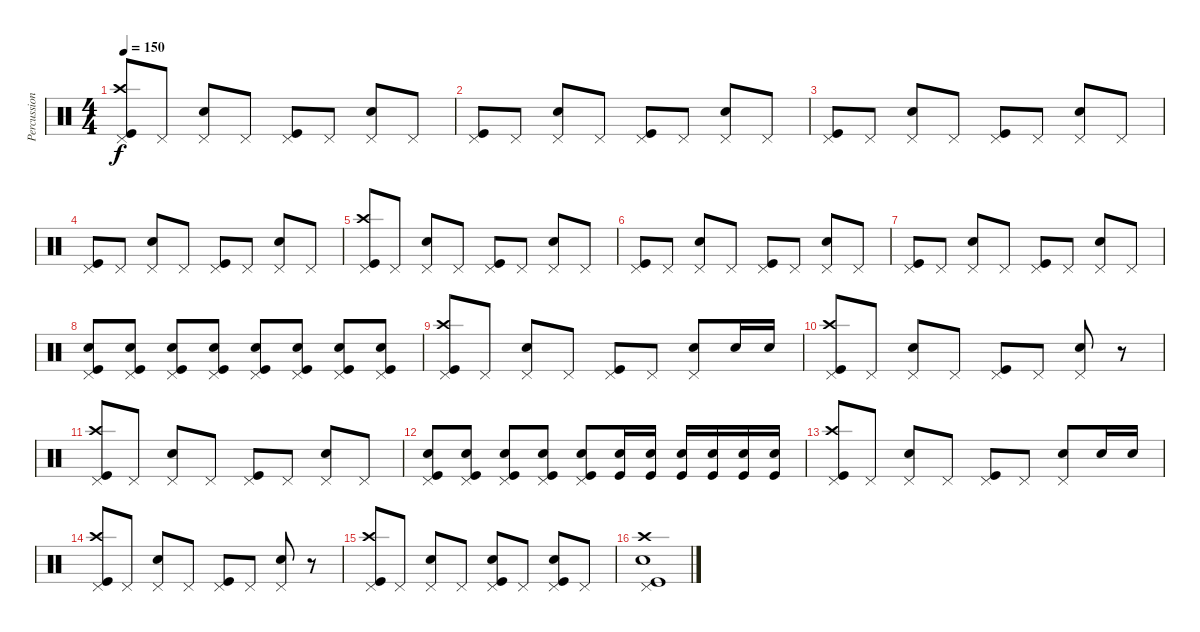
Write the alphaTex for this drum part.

\track ("Percussion" "Percussion") {instrument percussion}
\staff {score}
\articulation defaults
\ts (4 4)
\tempo 150
\clef neutral
\ks c
("Pedal Hi-Hat (hit)" "Crash high (hit)" "Kick (hit)").8{dy f} "Pedal Hi-Hat (hit)".8 ("Pedal Hi-Hat (hit)" "Snare (hit) 2").8 "Pedal Hi-Hat (hit)".8 ("Pedal Hi-Hat (hit)" "Kick (hit)").8 "Pedal Hi-Hat (hit)".8 ("Pedal Hi-Hat (hit)" "Snare (hit) 2").8 "Pedal Hi-Hat (hit)".8 |
("Pedal Hi-Hat (hit)" "Kick (hit)").8 "Pedal Hi-Hat (hit)".8 ("Pedal Hi-Hat (hit)" "Snare (hit) 2").8 "Pedal Hi-Hat (hit)".8 ("Pedal Hi-Hat (hit)" "Kick (hit)").8 "Pedal Hi-Hat (hit)".8 ("Pedal Hi-Hat (hit)" "Snare (hit) 2").8 "Pedal Hi-Hat (hit)".8 |
("Pedal Hi-Hat (hit)" "Kick (hit)").8 "Pedal Hi-Hat (hit)".8 ("Pedal Hi-Hat (hit)" "Snare (hit) 2").8 "Pedal Hi-Hat (hit)".8 ("Pedal Hi-Hat (hit)" "Kick (hit)").8 "Pedal Hi-Hat (hit)".8 ("Pedal Hi-Hat (hit)" "Snare (hit) 2").8 "Pedal Hi-Hat (hit)".8 |
("Pedal Hi-Hat (hit)" "Kick (hit)").8 "Pedal Hi-Hat (hit)".8 ("Pedal Hi-Hat (hit)" "Snare (hit) 2").8 "Pedal Hi-Hat (hit)".8 ("Pedal Hi-Hat (hit)" "Kick (hit)").8 "Pedal Hi-Hat (hit)".8 ("Pedal Hi-Hat (hit)" "Snare (hit) 2").8 "Pedal Hi-Hat (hit)".8 |
("Pedal Hi-Hat (hit)" "Crash high (hit)" "Kick (hit)").8 "Pedal Hi-Hat (hit)".8 ("Pedal Hi-Hat (hit)" "Snare (hit) 2").8 "Pedal Hi-Hat (hit)".8 ("Pedal Hi-Hat (hit)" "Kick (hit)").8 "Pedal Hi-Hat (hit)".8 ("Pedal Hi-Hat (hit)" "Snare (hit) 2").8 "Pedal Hi-Hat (hit)".8 |
("Pedal Hi-Hat (hit)" "Kick (hit)").8 "Pedal Hi-Hat (hit)".8 ("Pedal Hi-Hat (hit)" "Snare (hit) 2").8 "Pedal Hi-Hat (hit)".8 ("Pedal Hi-Hat (hit)" "Kick (hit)").8 "Pedal Hi-Hat (hit)".8 ("Pedal Hi-Hat (hit)" "Snare (hit) 2").8 "Pedal Hi-Hat (hit)".8 |
("Pedal Hi-Hat (hit)" "Kick (hit)").8 "Pedal Hi-Hat (hit)".8 ("Pedal Hi-Hat (hit)" "Snare (hit) 2").8 "Pedal Hi-Hat (hit)".8 ("Pedal Hi-Hat (hit)" "Kick (hit)").8 "Pedal Hi-Hat (hit)".8 ("Pedal Hi-Hat (hit)" "Snare (hit) 2").8 "Pedal Hi-Hat (hit)".8 |
("Pedal Hi-Hat (hit)" "Snare (hit) 2" "Kick (hit)").8 ("Pedal Hi-Hat (hit)" "Snare (hit) 2" "Kick (hit)").8 ("Pedal Hi-Hat (hit)" "Snare (hit) 2" "Kick (hit)").8 ("Pedal Hi-Hat (hit)" "Snare (hit) 2" "Kick (hit)").8 ("Pedal Hi-Hat (hit)" "Snare (hit) 2" "Kick (hit)").8 ("Pedal Hi-Hat (hit)" "Snare (hit) 2" "Kick (hit)").8 ("Pedal Hi-Hat (hit)" "Snare (hit) 2" "Kick (hit)").8 ("Pedal Hi-Hat (hit)" "Snare (hit) 2" "Kick (hit)").8 |
("Pedal Hi-Hat (hit)" "Crash high (hit)" "Kick (hit)").8 "Pedal Hi-Hat (hit)".8 ("Pedal Hi-Hat (hit)" "Snare (hit) 2").8 "Pedal Hi-Hat (hit)".8 ("Pedal Hi-Hat (hit)" "Kick (hit)").8 "Pedal Hi-Hat (hit)".8 ("Pedal Hi-Hat (hit)" "Snare (hit) 2").8 "Snare (hit) 2".16 "Snare (hit) 2".16 |
("Pedal Hi-Hat (hit)" "Crash high (hit)" "Kick (hit)").8 "Pedal Hi-Hat (hit)".8 ("Pedal Hi-Hat (hit)" "Snare (hit) 2").8 "Pedal Hi-Hat (hit)".8 ("Pedal Hi-Hat (hit)" "Kick (hit)").8 "Pedal Hi-Hat (hit)".8 ("Pedal Hi-Hat (hit)" "Snare (hit) 2").8 r.8 |
("Pedal Hi-Hat (hit)" "Crash high (hit)" "Kick (hit)").8 "Pedal Hi-Hat (hit)".8 ("Pedal Hi-Hat (hit)" "Snare (hit) 2").8 "Pedal Hi-Hat (hit)".8 ("Pedal Hi-Hat (hit)" "Kick (hit)").8 "Pedal Hi-Hat (hit)".8 ("Pedal Hi-Hat (hit)" "Snare (hit) 2").8 "Pedal Hi-Hat (hit)".8 |
("Pedal Hi-Hat (hit)" "Snare (hit) 2" "Kick (hit)").8 ("Pedal Hi-Hat (hit)" "Snare (hit) 2" "Kick (hit)").8 ("Pedal Hi-Hat (hit)" "Snare (hit) 2" "Kick (hit)").8 ("Pedal Hi-Hat (hit)" "Snare (hit) 2" "Kick (hit)").8 ("Pedal Hi-Hat (hit)" "Snare (hit) 2" "Kick (hit)").8 ("Snare (hit) 2" "Kick (hit)").16 ("Snare (hit) 2" "Kick (hit)").16 ("Snare (hit) 2" "Kick (hit)").16 ("Snare (hit) 2" "Kick (hit)").16 ("Snare (hit) 2" "Kick (hit)").16 ("Snare (hit) 2" "Kick (hit)").16 |
("Pedal Hi-Hat (hit)" "Crash high (hit)" "Kick (hit)").8 "Pedal Hi-Hat (hit)".8 ("Pedal Hi-Hat (hit)" "Snare (hit) 2").8 "Pedal Hi-Hat (hit)".8 ("Pedal Hi-Hat (hit)" "Kick (hit)").8 "Pedal Hi-Hat (hit)".8 ("Pedal Hi-Hat (hit)" "Snare (hit) 2").8 "Snare (hit) 2".16 "Snare (hit) 2".16 |
("Pedal Hi-Hat (hit)" "Crash high (hit)" "Kick (hit)").8 "Pedal Hi-Hat (hit)".8 ("Pedal Hi-Hat (hit)" "Snare (hit) 2").8 "Pedal Hi-Hat (hit)".8 ("Pedal Hi-Hat (hit)" "Kick (hit)").8 "Pedal Hi-Hat (hit)".8 ("Pedal Hi-Hat (hit)" "Snare (hit) 2").8 r.8 |
("Pedal Hi-Hat (hit)" "Crash high (hit)" "Kick (hit)").8 "Pedal Hi-Hat (hit)".8 ("Pedal Hi-Hat (hit)" "Snare (hit) 2").8 "Pedal Hi-Hat (hit)".8 ("Pedal Hi-Hat (hit)" "Snare (hit) 2" "Kick (hit)").8 "Pedal Hi-Hat (hit)".8 ("Pedal Hi-Hat (hit)" "Snare (hit) 2" "Kick (hit)").8 "Pedal Hi-Hat (hit)".8 |
("Pedal Hi-Hat (hit)" "Crash high (hit)" "Snare (hit) 2" "Kick (hit)").1
